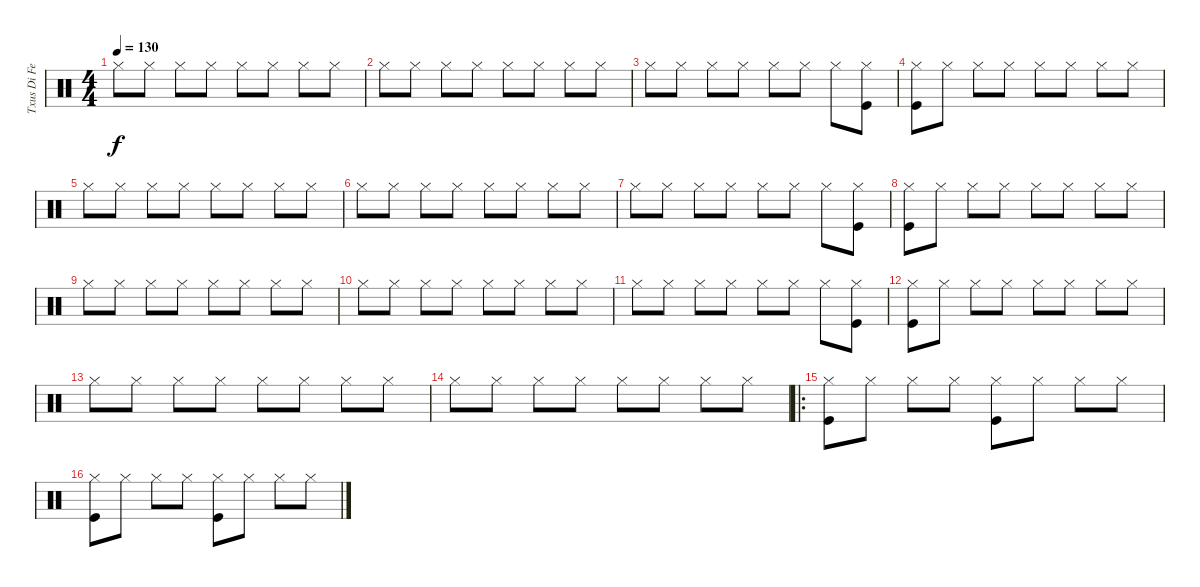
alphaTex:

\track ("Txus Di Fellatio" "Txus Di Fe") {instrument percussion}
\staff {score}
\articulation defaults
\ts (4 4)
\tempo 130
\clef neutral
\ks c "Hi-Hat (closed)".8{dy f} "Hi-Hat (closed)".8 "Hi-Hat (closed)".8 "Hi-Hat (closed)".8 "Hi-Hat (closed)".8 "Hi-Hat (closed)".8 "Hi-Hat (closed)".8 "Hi-Hat (closed)".8
|
"Hi-Hat (closed)".8 "Hi-Hat (closed)".8 "Hi-Hat (closed)".8 "Hi-Hat (closed)".8 "Hi-Hat (closed)".8 "Hi-Hat (closed)".8 "Hi-Hat (closed)".8 "Hi-Hat (closed)".8 |
"Hi-Hat (closed)".8 "Hi-Hat (closed)".8 "Hi-Hat (closed)".8 "Hi-Hat (closed)".8 "Hi-Hat (closed)".8 "Hi-Hat (closed)".8 "Hi-Hat (closed)".8 ("Hi-Hat (closed)" "Kick (hit)").8 |
("Hi-Hat (closed)" "Kick (hit)").8 "Hi-Hat (closed)".8 "Hi-Hat (closed)".8 "Hi-Hat (closed)".8 "Hi-Hat (closed)".8 "Hi-Hat (closed)".8 "Hi-Hat (closed)".8 "Hi-Hat (closed)".8 |
"Hi-Hat (closed)".8 "Hi-Hat (closed)".8 "Hi-Hat (closed)".8 "Hi-Hat (closed)".8 "Hi-Hat (closed)".8 "Hi-Hat (closed)".8 "Hi-Hat (closed)".8 "Hi-Hat (closed)".8 |
"Hi-Hat (closed)".8 "Hi-Hat (closed)".8 "Hi-Hat (closed)".8 "Hi-Hat (closed)".8 "Hi-Hat (closed)".8 "Hi-Hat (closed)".8 "Hi-Hat (closed)".8 "Hi-Hat (closed)".8 |
"Hi-Hat (closed)".8 "Hi-Hat (closed)".8 "Hi-Hat (closed)".8 "Hi-Hat (closed)".8 "Hi-Hat (closed)".8 "Hi-Hat (closed)".8 "Hi-Hat (closed)".8 ("Hi-Hat (closed)" "Kick (hit)").8 |
("Hi-Hat (closed)" "Kick (hit)").8 "Hi-Hat (closed)".8 "Hi-Hat (closed)".8 "Hi-Hat (closed)".8 "Hi-Hat (closed)".8 "Hi-Hat (closed)".8 "Hi-Hat (closed)".8 "Hi-Hat (closed)".8 |
"Hi-Hat (closed)".8 "Hi-Hat (closed)".8 "Hi-Hat (closed)".8 "Hi-Hat (closed)".8 "Hi-Hat (closed)".8 "Hi-Hat (closed)".8 "Hi-Hat (closed)".8 "Hi-Hat (closed)".8 |
"Hi-Hat (closed)".8 "Hi-Hat (closed)".8 "Hi-Hat (closed)".8 "Hi-Hat (closed)".8 "Hi-Hat (closed)".8 "Hi-Hat (closed)".8 "Hi-Hat (closed)".8 "Hi-Hat (closed)".8 |
"Hi-Hat (closed)".8 "Hi-Hat (closed)".8 "Hi-Hat (closed)".8 "Hi-Hat (closed)".8 "Hi-Hat (closed)".8 "Hi-Hat (closed)".8 "Hi-Hat (closed)".8 ("Hi-Hat (closed)" "Kick (hit)").8 |
("Hi-Hat (closed)" "Kick (hit)").8 "Hi-Hat (closed)".8 "Hi-Hat (closed)".8 "Hi-Hat (closed)".8 "Hi-Hat (closed)".8 "Hi-Hat (closed)".8 "Hi-Hat (closed)".8 "Hi-Hat (closed)".8 |
"Hi-Hat (closed)".8 "Hi-Hat (closed)".8 "Hi-Hat (closed)".8 "Hi-Hat (closed)".8 "Hi-Hat (closed)".8 "Hi-Hat (closed)".8 "Hi-Hat (closed)".8 "Hi-Hat (closed)".8 |
"Hi-Hat (closed)".8 "Hi-Hat (closed)".8 "Hi-Hat (closed)".8 "Hi-Hat (closed)".8 "Hi-Hat (closed)".8 "Hi-Hat (closed)".8 "Hi-Hat (closed)".8 "Hi-Hat (closed)".8 |
\ro
("Hi-Hat (closed)" "Kick (hit)").8 "Hi-Hat (closed)".8 "Hi-Hat (closed)".8 "Hi-Hat (closed)".8 ("Hi-Hat (closed)" "Kick (hit)").8 "Hi-Hat (closed)".8 "Hi-Hat (closed)".8 "Hi-Hat (closed)".8 |
("Hi-Hat (closed)" "Kick (hit)").8 "Hi-Hat (closed)".8 "Hi-Hat (closed)".8 "Hi-Hat (closed)".8 ("Hi-Hat (closed)" "Kick (hit)").8 "Hi-Hat (closed)".8 "Hi-Hat (closed)".8 "Hi-Hat (closed)".8
